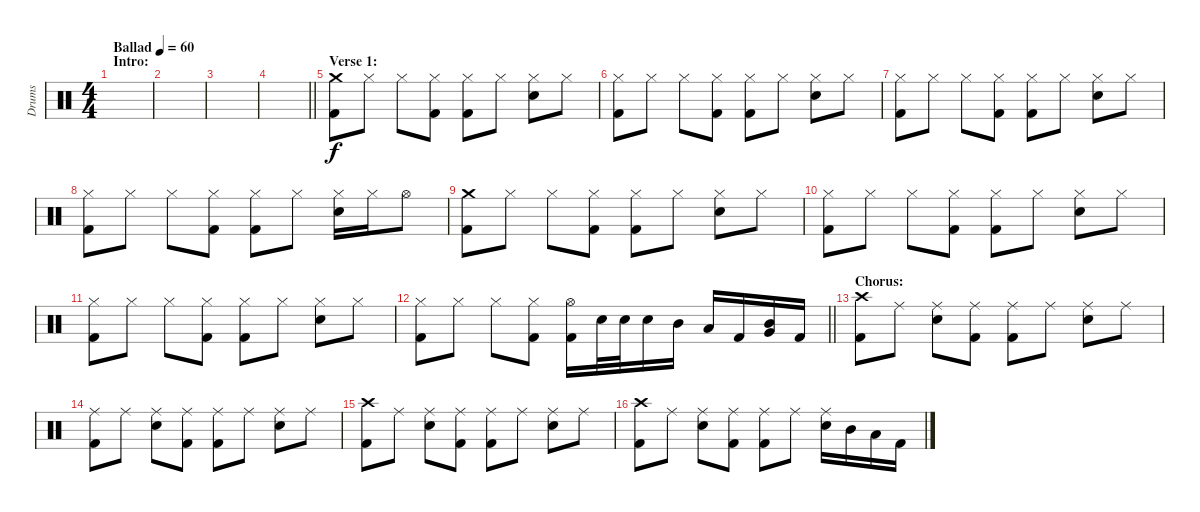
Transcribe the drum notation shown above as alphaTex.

\track ("Drums" "Drums") {instrument percussion}
\staff {score}
\articulation defaults
\ts (4 4)
\section ("" "Intro:")
\tempo (60 "Ballad")
\clef neutral
\ks c
|
|
|
\barLineRight lightlight
|
\section ("" "Verse 1:")
("Crash medium (hit)" "Kick (hit) 2").8 "Hi-Hat (closed)".8 "Hi-Hat (closed)".8 ("Hi-Hat (closed)" "Kick (hit) 2").8 ("Hi-Hat (closed)" "Kick (hit) 2").8 "Hi-Hat (closed)".8 ("Hi-Hat (closed)" "Electric Snare (hit)").8 "Hi-Hat (closed)".8 |
("Hi-Hat (closed)" "Kick (hit) 2").8 "Hi-Hat (closed)".8 "Hi-Hat (closed)".8 ("Hi-Hat (closed)" "Kick (hit) 2").8 ("Hi-Hat (closed)" "Kick (hit) 2").8 "Hi-Hat (closed)".8 ("Hi-Hat (closed)" "Electric Snare (hit)").8 "Hi-Hat (closed)".8 |
("Hi-Hat (closed)" "Kick (hit) 2").8 "Hi-Hat (closed)".8 "Hi-Hat (closed)".8 ("Hi-Hat (closed)" "Kick (hit) 2").8 ("Hi-Hat (closed)" "Kick (hit) 2").8 "Hi-Hat (closed)".8 ("Hi-Hat (closed)" "Electric Snare (hit)").8 "Hi-Hat (closed)".8 |
("Hi-Hat (closed)" "Kick (hit) 2").8 "Hi-Hat (closed)".8 "Hi-Hat (closed)".8 ("Hi-Hat (closed)" "Kick (hit) 2").8 ("Hi-Hat (closed)" "Kick (hit) 2").8 "Hi-Hat (closed)".8 ("Hi-Hat (closed)" "Electric Snare (hit)").16 "Hi-Hat (closed)".16 "Hi-Hat (open)".8 |
("Crash medium (hit)" "Kick (hit) 2").8 "Hi-Hat (closed)".8 "Hi-Hat (closed)".8 ("Hi-Hat (closed)" "Kick (hit) 2").8 ("Hi-Hat (closed)" "Kick (hit) 2").8 "Hi-Hat (closed)".8 ("Hi-Hat (closed)" "Electric Snare (hit)").8 "Hi-Hat (closed)".8 |
("Hi-Hat (closed)" "Kick (hit) 2").8 "Hi-Hat (closed)".8 "Hi-Hat (closed)".8 ("Hi-Hat (closed)" "Kick (hit) 2").8 ("Hi-Hat (closed)" "Kick (hit) 2").8 "Hi-Hat (closed)".8 ("Hi-Hat (closed)" "Electric Snare (hit)").8 "Hi-Hat (closed)".8 |
("Hi-Hat (closed)" "Kick (hit) 2").8 "Hi-Hat (closed)".8 "Hi-Hat (closed)".8 ("Hi-Hat (closed)" "Kick (hit) 2").8 ("Hi-Hat (closed)" "Kick (hit) 2").8 "Hi-Hat (closed)".8 ("Hi-Hat (closed)" "Electric Snare (hit)").8 "Hi-Hat (closed)".8 |
\barLineRight lightlight
("Hi-Hat (closed)" "Kick (hit) 2").8 "Hi-Hat (closed)".8 "Hi-Hat (closed)".8 ("Hi-Hat (closed)" "Kick (hit) 2").8 ("Hi-Hat (open)" "Kick (hit) 2").16 "Electric Snare (hit)".32 "Electric Snare (hit)".32 "Electric Snare (hit)".16 "Mid Tom (hit)".16{balance 13} "Low Tom (hit)".16{balance 8} "Kick (hit) 2".16{balance 8} ("Very Low Tom (hit)" "Mid Tom (hit)").16{balance 11} "Kick (hit) 2".16{balance 8} |
\section ("" "Chorus:")
("Crash high (hit)" "Kick (hit) 2").8 "Ride (middle)".8 ("Ride (middle)" "Electric Snare (hit)").8 ("Ride (middle)" "Kick (hit) 2").8 ("Ride (middle)" "Kick (hit) 2").8 "Ride (middle)".8 ("Ride (middle)" "Electric Snare (hit)").8 "Ride (middle)".8 |
("Ride (middle)" "Kick (hit) 2").8 "Ride (middle)".8 ("Ride (middle)" "Electric Snare (hit)").8 ("Ride (middle)" "Kick (hit) 2").8 ("Ride (middle)" "Kick (hit) 2").8 "Ride (middle)".8 ("Ride (middle)" "Electric Snare (hit)").8 "Ride (middle)".8 |
("Crash high (hit)" "Kick (hit) 2").8 "Ride (middle)".8 ("Ride (middle)" "Electric Snare (hit)").8 ("Ride (middle)" "Kick (hit) 2").8 ("Ride (middle)" "Kick (hit) 2").8 "Ride (middle)".8 ("Ride (middle)" "Electric Snare (hit)").8 "Ride (middle)".8 |
("Crash high (hit)" "Kick (hit) 2").8 "Ride (middle)".8 ("Ride (middle)" "Electric Snare (hit)").8 ("Ride (middle)" "Kick (hit) 2").8 ("Ride (middle)" "Kick (hit) 2").8 "Ride (middle)".8 ("Ride (middle)" "Electric Snare (hit)").16 "Mid Tom (hit)".16{balance 13} "Low Tom (hit)".16{balance 11} "Kick (hit) 2".16{balance 8}
